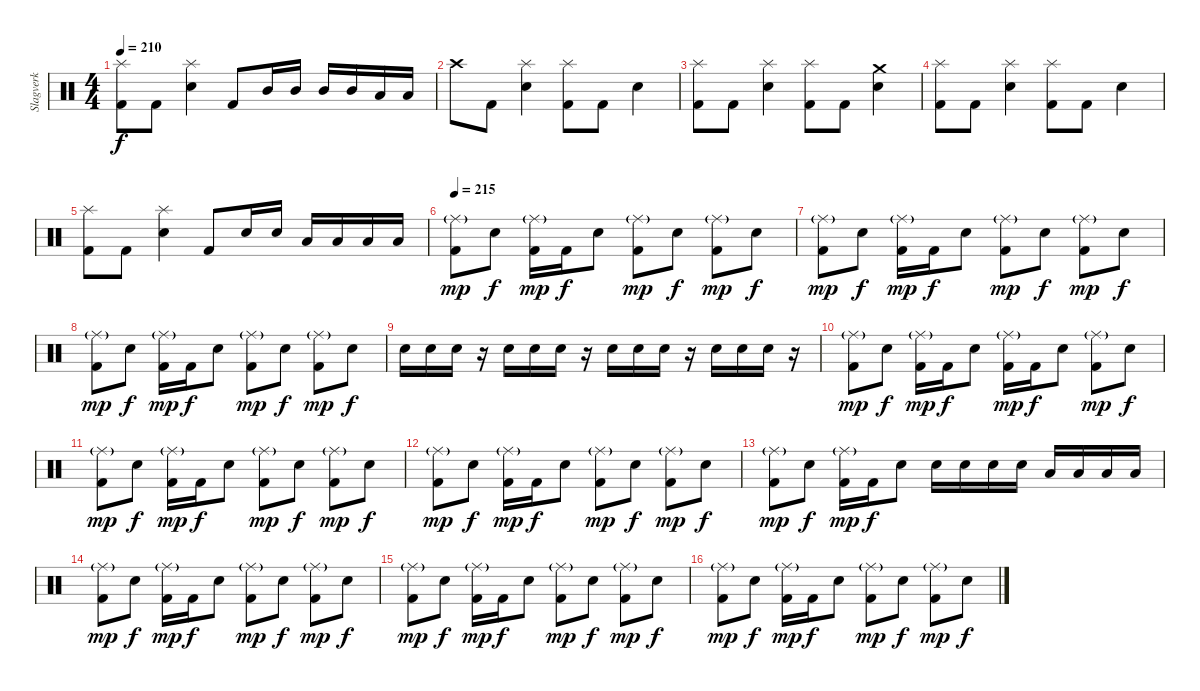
\track ("Slagverk" "Slagverk") {instrument percussion}
\staff {score}
\articulation defaults
\ts (4 4)
\tempo 210
\clef neutral
\ks c
("Splash (hit)" "Kick (hit) 2").8{dy f} "Kick (hit) 2".8 ("Splash (hit)" "Electric Snare (hit)").4 "Kick (hit) 2".8 "Mid Tom (hit)".16 "Mid Tom (hit)".16 "Mid Tom (hit)".16 "Mid Tom (hit)".16 "Low Tom (hit)".16 "Low Tom (hit)".16 |
"Crash high (hit)".8 "Kick (hit) 2".8 ("Splash (hit)" "Electric Snare (hit)").4 ("Splash (hit)" "Kick (hit) 2").8 "Kick (hit) 2".8 "Electric Snare (hit)".4 |
("Splash (hit)" "Kick (hit) 2").8 "Kick (hit) 2".8 ("Splash (hit)" "Electric Snare (hit)").4 ("Splash (hit)" "Kick (hit) 2").8 "Kick (hit) 2".8 ("Crash medium (hit)" "Electric Snare (hit)").4 |
("Splash (hit)" "Kick (hit) 2").8 "Kick (hit) 2".8 ("Splash (hit)" "Electric Snare (hit)").4 ("Splash (hit)" "Kick (hit) 2").8 "Kick (hit) 2".8 "Electric Snare (hit)".4 |
("Splash (hit)" "Kick (hit) 2").8 "Kick (hit) 2".8 ("Splash (hit)" "Electric Snare (hit)").4 "Kick (hit) 2".8 "Electric Snare (hit)".16 "Electric Snare (hit)".16 "Low Tom (hit)".16 "Low Tom (hit)".16 "Low Tom (hit)".16 "Low Tom (hit)".16 |
\tempo 215
("Ride (middle)"{g} "Kick (hit) 2").8{dy mp} "Electric Snare (hit)".8{dy f} ("Ride (middle)"{g} "Kick (hit) 2").16{dy mp} "Kick (hit) 2".16{dy f} "Electric Snare (hit)".8 ("Ride (middle)"{g} "Kick (hit) 2").8{dy mp} "Electric Snare (hit)".8{dy f} ("Ride (middle)"{g} "Kick (hit) 2").8{dy mp} "Electric Snare (hit)".8{dy f} |
("Ride (middle)"{g} "Kick (hit) 2").8{dy mp} "Electric Snare (hit)".8{dy f} ("Ride (middle)"{g} "Kick (hit) 2").16{dy mp} "Kick (hit) 2".16{dy f} "Electric Snare (hit)".8 ("Ride (middle)"{g} "Kick (hit) 2").8{dy mp} "Electric Snare (hit)".8{dy f} ("Ride (middle)"{g} "Kick (hit) 2").8{dy mp} "Electric Snare (hit)".8{dy f} |
("Ride (middle)"{g} "Kick (hit) 2").8{dy mp} "Electric Snare (hit)".8{dy f} ("Ride (middle)"{g} "Kick (hit) 2").16{dy mp} "Kick (hit) 2".16{dy f} "Electric Snare (hit)".8 ("Ride (middle)"{g} "Kick (hit) 2").8{dy mp} "Electric Snare (hit)".8{dy f} ("Ride (middle)"{g} "Kick (hit) 2").8{dy mp} "Electric Snare (hit)".8{dy f} |
"Electric Snare (hit)".16 "Electric Snare (hit)".16 "Electric Snare (hit)".16 r.16 "Electric Snare (hit)".16 "Electric Snare (hit)".16 "Electric Snare (hit)".16 r.16 "Electric Snare (hit)".16 "Electric Snare (hit)".16 "Electric Snare (hit)".16 r.16 "Electric Snare (hit)".16 "Electric Snare (hit)".16 "Electric Snare (hit)".16 r.16 |
("Ride (middle)"{g} "Kick (hit) 2").8{dy mp} "Electric Snare (hit)".8{dy f} ("Ride (middle)"{g} "Kick (hit) 2").16{dy mp} "Kick (hit) 2".16{dy f} "Electric Snare (hit)".8 ("Ride (middle)"{g} "Kick (hit) 2").16{dy mp} "Kick (hit) 2".16{dy f} "Electric Snare (hit)".8 ("Ride (middle)"{g} "Kick (hit) 2").8{dy mp} "Electric Snare (hit)".8{dy f} |
("Ride (middle)"{g} "Kick (hit) 2").8{dy mp} "Electric Snare (hit)".8{dy f} ("Ride (middle)"{g} "Kick (hit) 2").16{dy mp} "Kick (hit) 2".16{dy f} "Electric Snare (hit)".8 ("Ride (middle)"{g} "Kick (hit) 2").8{dy mp} "Electric Snare (hit)".8{dy f} ("Ride (middle)"{g} "Kick (hit) 2").8{dy mp} "Electric Snare (hit)".8{dy f} |
("Ride (middle)"{g} "Kick (hit) 2").8{dy mp} "Electric Snare (hit)".8{dy f} ("Ride (middle)"{g} "Kick (hit) 2").16{dy mp} "Kick (hit) 2".16{dy f} "Electric Snare (hit)".8 ("Ride (middle)"{g} "Kick (hit) 2").8{dy mp} "Electric Snare (hit)".8{dy f} ("Ride (middle)"{g} "Kick (hit) 2").8{dy mp} "Electric Snare (hit)".8{dy f} |
("Ride (middle)"{g} "Kick (hit) 2").8{dy mp} "Electric Snare (hit)".8{dy f} ("Ride (middle)"{g} "Kick (hit) 2").16{dy mp} "Kick (hit) 2".16{dy f} "Electric Snare (hit)".8 "Electric Snare (hit)".16 "Electric Snare (hit)".16 "Electric Snare (hit)".16 "Electric Snare (hit)".16 "Low Tom (hit)".16 "Low Tom (hit)".16 "Low Tom (hit)".16 "Low Tom (hit)".16 |
("Ride (middle)"{g} "Kick (hit) 2").8{dy mp} "Electric Snare (hit)".8{dy f} ("Ride (middle)"{g} "Kick (hit) 2").16{dy mp} "Kick (hit) 2".16{dy f} "Electric Snare (hit)".8 ("Ride (middle)"{g} "Kick (hit) 2").8{dy mp} "Electric Snare (hit)".8{dy f} ("Ride (middle)"{g} "Kick (hit) 2").8{dy mp} "Electric Snare (hit)".8{dy f} |
("Ride (middle)"{g} "Kick (hit) 2").8{dy mp} "Electric Snare (hit)".8{dy f} ("Ride (middle)"{g} "Kick (hit) 2").16{dy mp} "Kick (hit) 2".16{dy f} "Electric Snare (hit)".8 ("Ride (middle)"{g} "Kick (hit) 2").8{dy mp} "Electric Snare (hit)".8{dy f} ("Ride (middle)"{g} "Kick (hit) 2").8{dy mp} "Electric Snare (hit)".8{dy f} |
("Ride (middle)"{g} "Kick (hit) 2").8{dy mp} "Electric Snare (hit)".8{dy f} ("Ride (middle)"{g} "Kick (hit) 2").16{dy mp} "Kick (hit) 2".16{dy f} "Electric Snare (hit)".8 ("Ride (middle)"{g} "Kick (hit) 2").8{dy mp} "Electric Snare (hit)".8{dy f} ("Ride (middle)"{g} "Kick (hit) 2").8{dy mp} "Electric Snare (hit)".8{dy f}
